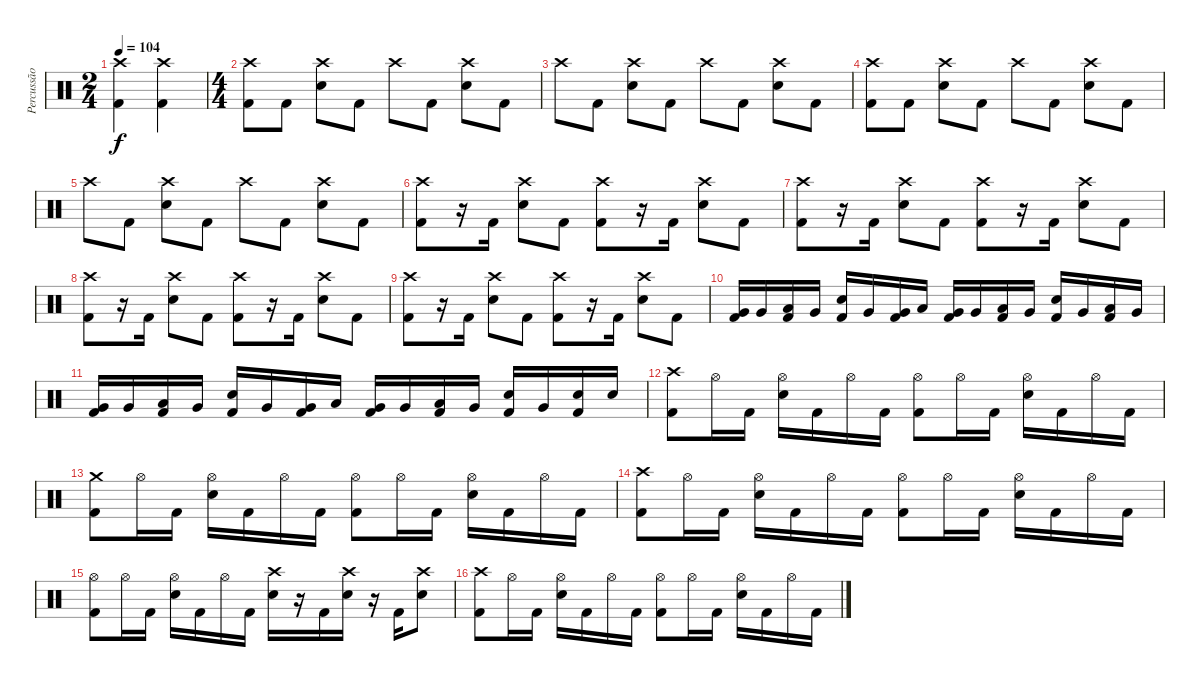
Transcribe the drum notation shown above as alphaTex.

\track ("Percussão" "Percussão") {instrument percussion}
\staff {score}
\articulation defaults
\ts (2 4)
\tempo 104
\clef neutral
\ks c
("Crash high (hit)" "Kick (hit) 2").4{dy f} ("Crash high (hit)" "Kick (hit) 2").4 |
\ts (4 4)
("Crash high (hit)" "Kick (hit) 2").8 "Kick (hit) 2".8 ("Crash high (hit)" "Electric Snare (hit)").8 "Kick (hit) 2".8 "Crash high (hit)".8 "Kick (hit) 2".8 ("Crash high (hit)" "Electric Snare (hit)").8 "Kick (hit) 2".8 |
"Crash high (hit)".8 "Kick (hit) 2".8 ("Crash high (hit)" "Electric Snare (hit)").8 "Kick (hit) 2".8 "Crash high (hit)".8 "Kick (hit) 2".8 ("Crash high (hit)" "Electric Snare (hit)").8 "Kick (hit) 2".8 |
("Crash high (hit)" "Kick (hit) 2").8 "Kick (hit) 2".8 ("Crash high (hit)" "Electric Snare (hit)").8 "Kick (hit) 2".8 "Crash high (hit)".8 "Kick (hit) 2".8 ("Crash high (hit)" "Electric Snare (hit)").8 "Kick (hit) 2".8 |
"Crash high (hit)".8 "Kick (hit) 2".8 ("Crash high (hit)" "Electric Snare (hit)").8 "Kick (hit) 2".8 "Crash high (hit)".8 "Kick (hit) 2".8 ("Crash high (hit)" "Electric Snare (hit)").8 "Kick (hit) 2".8 |
("Crash high (hit)" "Kick (hit) 2").8 r.16 "Kick (hit) 2".16 ("Crash high (hit)" "Electric Snare (hit)").8 "Kick (hit) 2".8 ("Crash high (hit)" "Kick (hit) 2").8 r.16 "Kick (hit) 2".16 ("Crash high (hit)" "Electric Snare (hit)").8 "Kick (hit) 2".8 |
("Crash high (hit)" "Kick (hit) 2").8 r.16 "Kick (hit) 2".16 ("Crash high (hit)" "Electric Snare (hit)").8 "Kick (hit) 2".8 ("Crash high (hit)" "Kick (hit) 2").8 r.16 "Kick (hit) 2".16 ("Crash high (hit)" "Electric Snare (hit)").8 "Kick (hit) 2".8 |
("Crash high (hit)" "Kick (hit) 2").8 r.16 "Kick (hit) 2".16 ("Crash high (hit)" "Electric Snare (hit)").8 "Kick (hit) 2".8 ("Crash high (hit)" "Kick (hit) 2").8 r.16 "Kick (hit) 2".16 ("Crash high (hit)" "Electric Snare (hit)").8 "Kick (hit) 2".8 |
("Crash high (hit)" "Kick (hit) 2").8 r.16 "Kick (hit) 2".16 ("Crash high (hit)" "Electric Snare (hit)").8 "Kick (hit) 2".8 ("Crash high (hit)" "Kick (hit) 2").8 r.16 "Kick (hit) 2".16 ("Crash high (hit)" "Electric Snare (hit)").8 "Kick (hit) 2".8 |
("Very Low Tom (hit)" "Kick (hit) 2").16 "Very Low Tom (hit)".16 ("Low Tom (hit)" "Kick (hit) 2").16 "Very Low Tom (hit)".16 ("Electric Snare (hit)" "Kick (hit) 2").16 "Very Low Tom (hit)".16 ("Very Low Tom (hit)" "Kick (hit) 2").16 "Low Tom (hit)".16 ("Very Low Tom (hit)" "Kick (hit) 2").16 "Very Low Tom (hit)".16 ("Low Tom (hit)" "Kick (hit) 2").16 "Very Low Tom (hit)".16 ("Electric Snare (hit)" "Kick (hit) 2").16 "Very Low Tom (hit)".16 ("Low Tom (hit)" "Kick (hit) 2").16 "Very Low Tom (hit)".16 |
("Very Low Tom (hit)" "Kick (hit) 2").16 "Very Low Tom (hit)".16 ("Low Tom (hit)" "Kick (hit) 2").16 "Very Low Tom (hit)".16 ("Electric Snare (hit)" "Kick (hit) 2").16 "Very Low Tom (hit)".16 ("Very Low Tom (hit)" "Kick (hit) 2").16 "Low Tom (hit)".16 ("Very Low Tom (hit)" "Kick (hit) 2").16 "Very Low Tom (hit)".16 ("Low Tom (hit)" "Kick (hit) 2").16 "Very Low Tom (hit)".16 ("Electric Snare (hit)" "Kick (hit) 2").16 "Very Low Tom (hit)".16 ("Electric Snare (hit)" "Kick (hit) 2").16 "Electric Snare (hit)".16 |
("Crash high (hit)" "Kick (hit) 2").8 "Hi-Hat (open)".16 "Kick (hit) 2".16 ("Hi-Hat (open)" "Electric Snare (hit)").16 "Kick (hit) 2".16 "Hi-Hat (open)".16 "Kick (hit) 2".16 ("Hi-Hat (open)" "Kick (hit) 2").8 "Hi-Hat (open)".16 "Kick (hit) 2".16 ("Hi-Hat (open)" "Electric Snare (hit)").16 "Kick (hit) 2".16 "Hi-Hat (open)".16 "Kick (hit) 2".16 |
("Crash medium (hit)" "Kick (hit) 2").8 "Hi-Hat (open)".16 "Kick (hit) 2".16 ("Hi-Hat (open)" "Electric Snare (hit)").16 "Kick (hit) 2".16 "Hi-Hat (open)".16 "Kick (hit) 2".16 ("Hi-Hat (open)" "Kick (hit) 2").8 "Hi-Hat (open)".16 "Kick (hit) 2".16 ("Hi-Hat (open)" "Electric Snare (hit)").16 "Kick (hit) 2".16 "Hi-Hat (open)".16 "Kick (hit) 2".16 |
("Crash high (hit)" "Kick (hit) 2").8 "Hi-Hat (open)".16 "Kick (hit) 2".16 ("Hi-Hat (open)" "Electric Snare (hit)").16 "Kick (hit) 2".16 "Hi-Hat (open)".16 "Kick (hit) 2".16 ("Hi-Hat (open)" "Kick (hit) 2").8 "Hi-Hat (open)".16 "Kick (hit) 2".16 ("Hi-Hat (open)" "Electric Snare (hit)").16 "Kick (hit) 2".16 "Hi-Hat (open)".16 "Kick (hit) 2".16 |
("Hi-Hat (open)" "Kick (hit) 2").8 "Hi-Hat (open)".16 "Kick (hit) 2".16 ("Hi-Hat (open)" "Electric Snare (hit)").16 "Kick (hit) 2".16 "Hi-Hat (open)".16 "Kick (hit) 2".16 ("Crash high (hit)" "Electric Snare (hit)").16 r.16 "Kick (hit) 2".16 ("Crash high (hit)" "Electric Snare (hit)").16 r.16 "Kick (hit) 2".16 ("Crash high (hit)" "Electric Snare (hit)").8 |
("Crash high (hit)" "Kick (hit) 2").8 "Hi-Hat (open)".16 "Kick (hit) 2".16 ("Hi-Hat (open)" "Electric Snare (hit)").16 "Kick (hit) 2".16 "Hi-Hat (open)".16 "Kick (hit) 2".16 ("Hi-Hat (open)" "Kick (hit) 2").8 "Hi-Hat (open)".16 "Kick (hit) 2".16 ("Hi-Hat (open)" "Electric Snare (hit)").16 "Kick (hit) 2".16 "Hi-Hat (open)".16 "Kick (hit) 2".16
